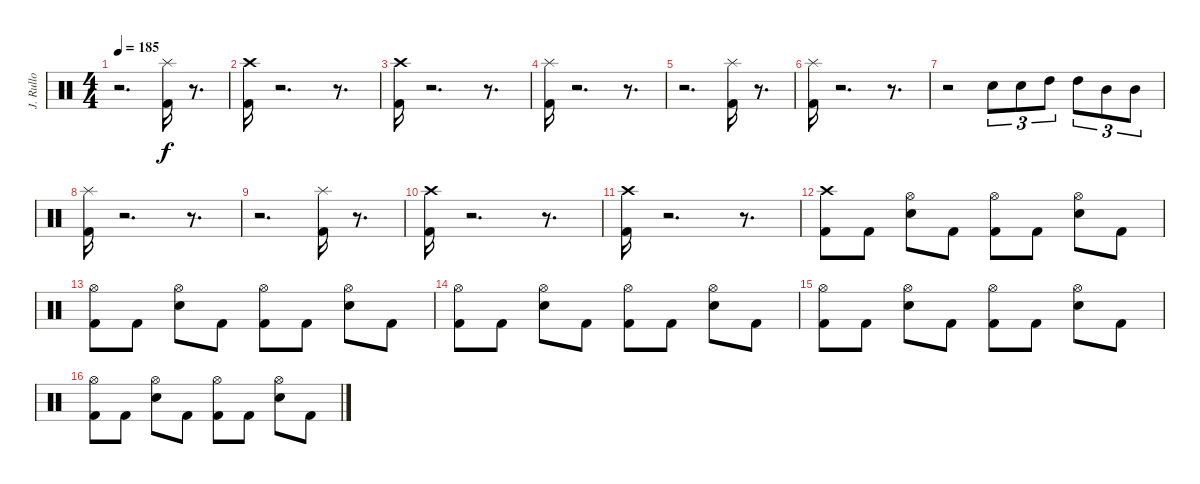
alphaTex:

\track ("J. Rullo" "J. Rullo") {instrument percussion}
\staff {score}
\articulation defaults
\ts (4 4)
\tempo 185
\clef neutral
\ks c
r.2{d dy f} ("Splash (hit)" "Kick (hit) 2").16 r.8{d} |
("Crash high (hit)" "Kick (hit) 2").16 r.2{d} r.8{d} |
("Crash high (hit)" "Kick (hit) 2").16 r.2{d} r.8{d} |
("Splash (hit)" "Kick (hit) 2").16 r.2{d} r.8{d} |
r.2{d} ("Splash (hit)" "Kick (hit) 2").16 r.8{d} |
("Splash (hit)" "Kick (hit) 2").16 r.2{d} r.8{d} |
r.2 "Snare (hit) 2".8{tu (3 2)} "Snare (hit) 2".8{tu (3 2)} "High Tom (hit)".8{tu (3 2)} "High Tom (hit)".8{tu (3 2)} "Mid Tom (hit)".8{tu (3 2)} "Mid Tom (hit)".8{tu (3 2)} |
("Splash (hit)" "Kick (hit) 2").16 r.2{d} r.8{d} |
r.2{d} ("Splash (hit)" "Kick (hit) 2").16 r.8{d} |
("Crash high (hit)" "Kick (hit) 2").16 r.2{d} r.8{d} |
("Crash high (hit)" "Kick (hit) 2").16 r.2{d} r.8{d} |
("Crash high (hit)" "Kick (hit) 2").8 "Kick (hit) 2".8 ("Hi-Hat (open)" "Snare (hit) 2").8 "Kick (hit) 2".8 ("Hi-Hat (open)" "Kick (hit) 2").8 "Kick (hit) 2".8 ("Hi-Hat (open)" "Snare (hit) 2").8 "Kick (hit) 2".8 |
("Hi-Hat (open)" "Kick (hit) 2").8 "Kick (hit) 2".8 ("Hi-Hat (open)" "Snare (hit) 2").8 "Kick (hit) 2".8 ("Hi-Hat (open)" "Kick (hit) 2").8 "Kick (hit) 2".8 ("Hi-Hat (open)" "Snare (hit) 2").8 "Kick (hit) 2".8 |
("Hi-Hat (open)" "Kick (hit) 2").8 "Kick (hit) 2".8 ("Hi-Hat (open)" "Snare (hit) 2").8 "Kick (hit) 2".8 ("Hi-Hat (open)" "Kick (hit) 2").8 "Kick (hit) 2".8 ("Hi-Hat (open)" "Snare (hit) 2").8 "Kick (hit) 2".8 |
("Hi-Hat (open)" "Kick (hit) 2").8 "Kick (hit) 2".8 ("Hi-Hat (open)" "Snare (hit) 2").8 "Kick (hit) 2".8 ("Hi-Hat (open)" "Kick (hit) 2").8 "Kick (hit) 2".8 ("Hi-Hat (open)" "Snare (hit) 2").8 "Kick (hit) 2".8 |
("Hi-Hat (open)" "Kick (hit) 2").8 "Kick (hit) 2".8 ("Hi-Hat (open)" "Snare (hit) 2").8 "Kick (hit) 2".8 ("Hi-Hat (open)" "Kick (hit) 2").8 "Kick (hit) 2".8 ("Hi-Hat (open)" "Snare (hit) 2").8 "Kick (hit) 2".8
